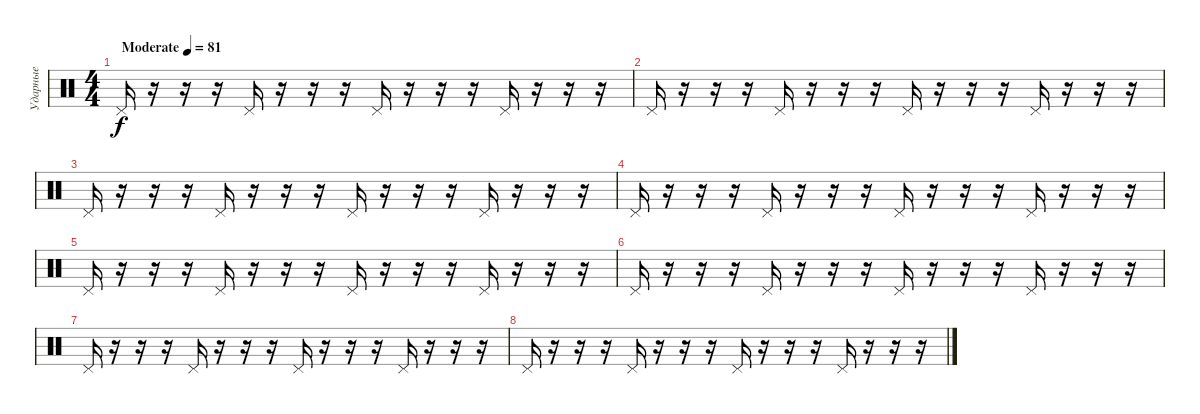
\track ("Ударные" "Ударные") {instrument percussion}
\staff {score}
\articulation defaults
\ts (4 4)
\tempo (81 "Moderate")
\clef neutral
\ks c "Pedal Hi-Hat (hit)".16{dy f}
r.16 r.16 r.16 "Pedal Hi-Hat (hit)".16 r.16 r.16 r.16 "Pedal Hi-Hat (hit)".16 r.16 r.16 r.16 "Pedal Hi-Hat (hit)".16 r.16 r.16 r.16 |
"Pedal Hi-Hat (hit)".16 r.16 r.16 r.16 "Pedal Hi-Hat (hit)".16 r.16 r.16 r.16 "Pedal Hi-Hat (hit)".16 r.16 r.16 r.16 "Pedal Hi-Hat (hit)".16 r.16 r.16 r.16 |
"Pedal Hi-Hat (hit)".16 r.16 r.16 r.16 "Pedal Hi-Hat (hit)".16 r.16 r.16 r.16 "Pedal Hi-Hat (hit)".16 r.16 r.16 r.16 "Pedal Hi-Hat (hit)".16 r.16 r.16 r.16 |
"Pedal Hi-Hat (hit)".16 r.16 r.16 r.16 "Pedal Hi-Hat (hit)".16 r.16 r.16 r.16 "Pedal Hi-Hat (hit)".16 r.16 r.16 r.16 "Pedal Hi-Hat (hit)".16 r.16 r.16 r.16 |
"Pedal Hi-Hat (hit)".16 r.16 r.16 r.16 "Pedal Hi-Hat (hit)".16 r.16 r.16 r.16 "Pedal Hi-Hat (hit)".16 r.16 r.16 r.16 "Pedal Hi-Hat (hit)".16 r.16 r.16 r.16 |
"Pedal Hi-Hat (hit)".16 r.16 r.16 r.16 "Pedal Hi-Hat (hit)".16 r.16 r.16 r.16 "Pedal Hi-Hat (hit)".16 r.16 r.16 r.16 "Pedal Hi-Hat (hit)".16 r.16 r.16 r.16 |
"Pedal Hi-Hat (hit)".16 r.16 r.16 r.16 "Pedal Hi-Hat (hit)".16 r.16 r.16 r.16 "Pedal Hi-Hat (hit)".16 r.16 r.16 r.16 "Pedal Hi-Hat (hit)".16 r.16 r.16 r.16 |
"Pedal Hi-Hat (hit)".16 r.16 r.16 r.16 "Pedal Hi-Hat (hit)".16 r.16 r.16 r.16 "Pedal Hi-Hat (hit)".16 r.16 r.16 r.16 "Pedal Hi-Hat (hit)".16 r.16 r.16 r.16
